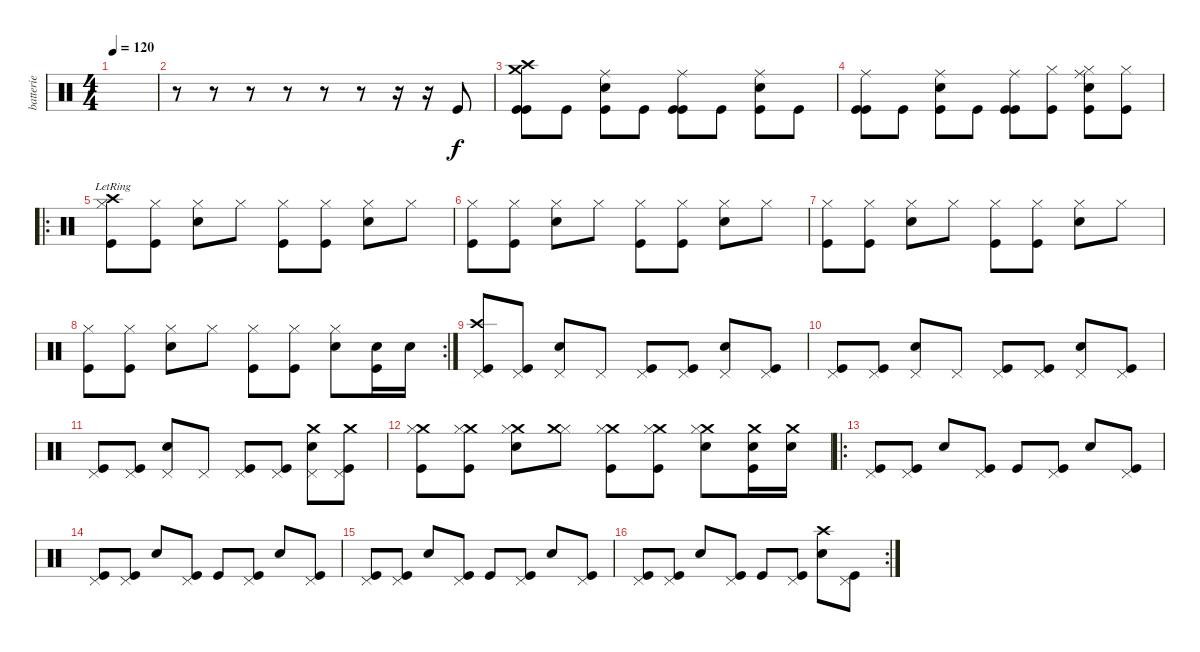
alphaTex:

\track ("batterie" "batterie") {instrument percussion}
\staff {score}
\articulation defaults
\ts (4 4)
\tempo 120
\clef neutral
\ks c
|
r.8 r.8 r.8 r.8 r.8 r.8 r.16 r.16 "Kick (hit)".8 |
("Kick (hit)" "Kick (hit)" "Crash medium (hit)" "Crash high (hit)").8 "Kick (hit)".8 ("Kick (hit)" "Electric Snare (hit)" "Ride (middle)").8 "Kick (hit)".8 ("Kick (hit)" "Kick (hit)" "Ride (middle)").8 "Kick (hit)".8 ("Kick (hit)" "Electric Snare (hit)" "Ride (middle)").8 "Kick (hit)".8 |
\section ("" "")
("Kick (hit)" "Kick (hit)" "Ride (middle)").8 "Kick (hit)".8 ("Kick (hit)" "Electric Snare (hit)" "Ride (middle)").8 "Kick (hit)".8 ("Kick (hit)" "Kick (hit)" "Ride (middle)").8 ("Kick (hit)" "Hi-Hat (closed)").8 ("Kick (hit)" "Electric Snare (hit)" "Hi-Hat (closed)" "Ride (middle)").8 ("Kick (hit)" "Hi-Hat (closed)").8 |
\ro
("Kick (hit)" "Crash high (hit)"{lr} "Hi-Hat (closed)").8 ("Kick (hit)" "Hi-Hat (closed)").8 ("Electric Snare (hit)" "Hi-Hat (closed)").8 "Hi-Hat (closed)".8 ("Kick (hit)" "Hi-Hat (closed)").8 ("Kick (hit)" "Hi-Hat (closed)").8 ("Electric Snare (hit)" "Hi-Hat (closed)").8 "Hi-Hat (closed)".8 |
("Kick (hit)" "Hi-Hat (closed)").8 ("Kick (hit)" "Hi-Hat (closed)").8 ("Electric Snare (hit)" "Hi-Hat (closed)").8 "Hi-Hat (closed)".8 ("Kick (hit)" "Hi-Hat (closed)").8 ("Kick (hit)" "Hi-Hat (closed)").8 ("Electric Snare (hit)" "Hi-Hat (closed)").8 "Hi-Hat (closed)".8 |
("Kick (hit)" "Hi-Hat (closed)").8 ("Kick (hit)" "Hi-Hat (closed)").8 ("Electric Snare (hit)" "Hi-Hat (closed)").8 "Hi-Hat (closed)".8 ("Kick (hit)" "Hi-Hat (closed)").8 ("Kick (hit)" "Hi-Hat (closed)").8 ("Electric Snare (hit)" "Hi-Hat (closed)").8 "Hi-Hat (closed)".8 |
\rc 2
("Kick (hit)" "Hi-Hat (closed)").8 ("Kick (hit)" "Hi-Hat (closed)").8 ("Electric Snare (hit)" "Hi-Hat (closed)").8 "Hi-Hat (closed)".8 ("Kick (hit)" "Hi-Hat (closed)").8 ("Kick (hit)" "Hi-Hat (closed)").8 ("Electric Snare (hit)" "Hi-Hat (closed)").8 ("Kick (hit)" "Electric Snare (hit)").16 "Electric Snare (hit)".16 |
("Kick (hit)" "Crash high (hit)" "Pedal Hi-Hat (hit)").8 ("Kick (hit)" "Pedal Hi-Hat (hit)").8 ("Electric Snare (hit)" "Pedal Hi-Hat (hit)").8 "Pedal Hi-Hat (hit)".8 ("Kick (hit)" "Pedal Hi-Hat (hit)").8 ("Kick (hit)" "Pedal Hi-Hat (hit)").8 ("Electric Snare (hit)" "Pedal Hi-Hat (hit)").8 ("Kick (hit)" "Pedal Hi-Hat (hit)").8 |
("Kick (hit)" "Pedal Hi-Hat (hit)").8 ("Kick (hit)" "Pedal Hi-Hat (hit)").8 ("Electric Snare (hit)" "Pedal Hi-Hat (hit)").8 "Pedal Hi-Hat (hit)".8 ("Kick (hit)" "Pedal Hi-Hat (hit)").8 ("Kick (hit)" "Pedal Hi-Hat (hit)").8 ("Electric Snare (hit)" "Pedal Hi-Hat (hit)").8 ("Kick (hit)" "Pedal Hi-Hat (hit)").8 |
("Kick (hit)" "Pedal Hi-Hat (hit)").8 ("Kick (hit)" "Pedal Hi-Hat (hit)").8 ("Electric Snare (hit)" "Pedal Hi-Hat (hit)").8 "Pedal Hi-Hat (hit)".8 ("Kick (hit)" "Pedal Hi-Hat (hit)").8 ("Kick (hit)" "Pedal Hi-Hat (hit)").8 ("Electric Snare (hit)" "Crash medium (hit)" "Pedal Hi-Hat (hit)").8 ("Kick (hit)" "Pedal Hi-Hat (hit)" "Crash medium (hit)").8 |
("Kick (hit)" "Crash medium (hit)" "Hi-Hat (closed)").8 ("Kick (hit)" "Crash medium (hit)" "Hi-Hat (closed)").8 ("Electric Snare (hit)" "Crash medium (hit)" "Hi-Hat (closed)").8 ("Hi-Hat (closed)" "Crash medium (hit)").8 ("Kick (hit)" "Crash medium (hit)" "Hi-Hat (closed)").8 ("Kick (hit)" "Crash medium (hit)" "Hi-Hat (closed)").8 ("Electric Snare (hit)" "Crash medium (hit)" "Hi-Hat (closed)").8 ("Kick (hit)" "Electric Snare (hit)" "Crash medium (hit)").16 ("Electric Snare (hit)" "Crash medium (hit)").16 |
\ro
("Kick (hit)" "Pedal Hi-Hat (hit)").8 ("Pedal Hi-Hat (hit)" "Kick (hit)").8 "Electric Snare (hit)".8 ("Kick (hit)" "Pedal Hi-Hat (hit)").8 "Kick (hit)".8 ("Kick (hit)" "Pedal Hi-Hat (hit)").8 "Electric Snare (hit)".8 ("Kick (hit)" "Pedal Hi-Hat (hit)").8 |
("Kick (hit)" "Pedal Hi-Hat (hit)").8 ("Pedal Hi-Hat (hit)" "Kick (hit)").8 "Electric Snare (hit)".8 ("Kick (hit)" "Pedal Hi-Hat (hit)").8 "Kick (hit)".8 ("Kick (hit)" "Pedal Hi-Hat (hit)").8 "Electric Snare (hit)".8 ("Kick (hit)" "Pedal Hi-Hat (hit)").8 |
("Kick (hit)" "Pedal Hi-Hat (hit)").8 ("Pedal Hi-Hat (hit)" "Kick (hit)").8 "Electric Snare (hit)".8 ("Kick (hit)" "Pedal Hi-Hat (hit)").8 "Kick (hit)".8 ("Kick (hit)" "Pedal Hi-Hat (hit)").8 "Electric Snare (hit)".8 ("Kick (hit)" "Pedal Hi-Hat (hit)").8 |
\rc 2
("Kick (hit)" "Pedal Hi-Hat (hit)").8 ("Pedal Hi-Hat (hit)" "Kick (hit)").8 "Electric Snare (hit)".8 ("Kick (hit)" "Pedal Hi-Hat (hit)").8 "Kick (hit)".8 ("Kick (hit)" "Pedal Hi-Hat (hit)").8 ("Electric Snare (hit)" "Crash high (hit)").8 ("Kick (hit)" "Pedal Hi-Hat (hit)").8
